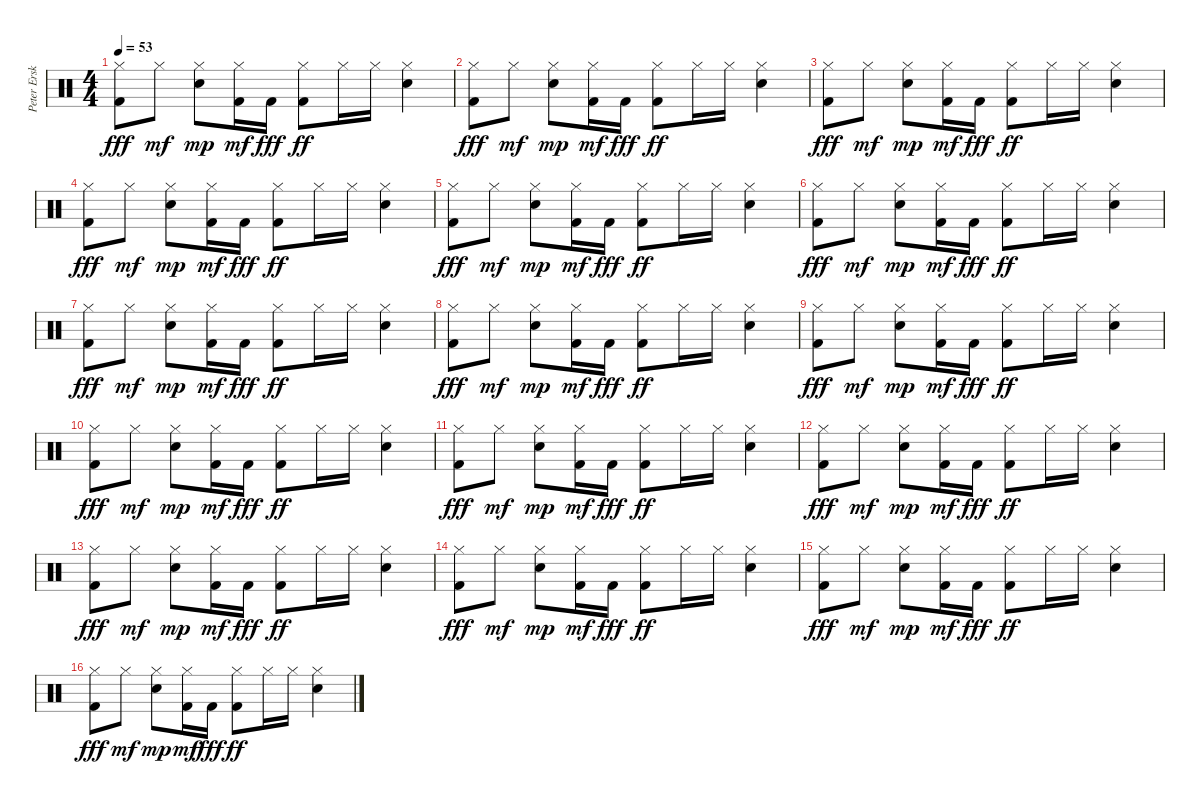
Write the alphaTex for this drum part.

\track ("Peter Erskine" "Peter Ersk") {instrument percussion}
\staff {score}
\articulation defaults
\ts (4 4)
\tempo 53
\clef neutral
\ks c
("Kick (hit) 2" "Hi-Hat (closed)").8{dy fff} "Hi-Hat (closed)".8{dy mf} ("Snare (hit) 2" "Hi-Hat (closed)").8{dy mp} ("Kick (hit) 2" "Hi-Hat (closed)").16{dy mf} "Kick (hit) 2".16{dy fff} ("Kick (hit) 2" "Hi-Hat (closed)").8{dy ff} "Hi-Hat (closed)".16 "Hi-Hat (closed)".16 ("Snare (hit) 2" "Hi-Hat (closed)").4 |
("Kick (hit) 2" "Hi-Hat (closed)").8{dy fff} "Hi-Hat (closed)".8{dy mf} ("Snare (hit) 2" "Hi-Hat (closed)").8{dy mp} ("Kick (hit) 2" "Hi-Hat (closed)").16{dy mf} "Kick (hit) 2".16{dy fff} ("Kick (hit) 2" "Hi-Hat (closed)").8{dy ff} "Hi-Hat (closed)".16 "Hi-Hat (closed)".16 ("Snare (hit) 2" "Hi-Hat (closed)").4 |
("Kick (hit) 2" "Hi-Hat (closed)").8{dy fff} "Hi-Hat (closed)".8{dy mf} ("Snare (hit) 2" "Hi-Hat (closed)").8{dy mp} ("Kick (hit) 2" "Hi-Hat (closed)").16{dy mf} "Kick (hit) 2".16{dy fff} ("Kick (hit) 2" "Hi-Hat (closed)").8{dy ff} "Hi-Hat (closed)".16 "Hi-Hat (closed)".16 ("Snare (hit) 2" "Hi-Hat (closed)").4 |
("Kick (hit) 2" "Hi-Hat (closed)").8{dy fff} "Hi-Hat (closed)".8{dy mf} ("Snare (hit) 2" "Hi-Hat (closed)").8{dy mp} ("Kick (hit) 2" "Hi-Hat (closed)").16{dy mf} "Kick (hit) 2".16{dy fff} ("Kick (hit) 2" "Hi-Hat (closed)").8{dy ff} "Hi-Hat (closed)".16 "Hi-Hat (closed)".16 ("Snare (hit) 2" "Hi-Hat (closed)").4 |
("Kick (hit) 2" "Hi-Hat (closed)").8{dy fff} "Hi-Hat (closed)".8{dy mf} ("Snare (hit) 2" "Hi-Hat (closed)").8{dy mp} ("Kick (hit) 2" "Hi-Hat (closed)").16{dy mf} "Kick (hit) 2".16{dy fff} ("Kick (hit) 2" "Hi-Hat (closed)").8{dy ff} "Hi-Hat (closed)".16 "Hi-Hat (closed)".16 ("Snare (hit) 2" "Hi-Hat (closed)").4 |
("Kick (hit) 2" "Hi-Hat (closed)").8{dy fff} "Hi-Hat (closed)".8{dy mf} ("Snare (hit) 2" "Hi-Hat (closed)").8{dy mp} ("Kick (hit) 2" "Hi-Hat (closed)").16{dy mf} "Kick (hit) 2".16{dy fff} ("Kick (hit) 2" "Hi-Hat (closed)").8{dy ff} "Hi-Hat (closed)".16 "Hi-Hat (closed)".16 ("Snare (hit) 2" "Hi-Hat (closed)").4 |
("Kick (hit) 2" "Hi-Hat (closed)").8{dy fff} "Hi-Hat (closed)".8{dy mf} ("Snare (hit) 2" "Hi-Hat (closed)").8{dy mp} ("Kick (hit) 2" "Hi-Hat (closed)").16{dy mf} "Kick (hit) 2".16{dy fff} ("Kick (hit) 2" "Hi-Hat (closed)").8{dy ff} "Hi-Hat (closed)".16 "Hi-Hat (closed)".16 ("Snare (hit) 2" "Hi-Hat (closed)").4 |
("Kick (hit) 2" "Hi-Hat (closed)").8{dy fff} "Hi-Hat (closed)".8{dy mf} ("Snare (hit) 2" "Hi-Hat (closed)").8{dy mp} ("Kick (hit) 2" "Hi-Hat (closed)").16{dy mf} "Kick (hit) 2".16{dy fff} ("Kick (hit) 2" "Hi-Hat (closed)").8{dy ff} "Hi-Hat (closed)".16 "Hi-Hat (closed)".16 ("Snare (hit) 2" "Hi-Hat (closed)").4 |
("Kick (hit) 2" "Hi-Hat (closed)").8{dy fff} "Hi-Hat (closed)".8{dy mf} ("Snare (hit) 2" "Hi-Hat (closed)").8{dy mp} ("Kick (hit) 2" "Hi-Hat (closed)").16{dy mf} "Kick (hit) 2".16{dy fff} ("Kick (hit) 2" "Hi-Hat (closed)").8{dy ff} "Hi-Hat (closed)".16 "Hi-Hat (closed)".16 ("Snare (hit) 2" "Hi-Hat (closed)").4 |
("Kick (hit) 2" "Hi-Hat (closed)").8{dy fff} "Hi-Hat (closed)".8{dy mf} ("Snare (hit) 2" "Hi-Hat (closed)").8{dy mp} ("Kick (hit) 2" "Hi-Hat (closed)").16{dy mf} "Kick (hit) 2".16{dy fff} ("Kick (hit) 2" "Hi-Hat (closed)").8{dy ff} "Hi-Hat (closed)".16 "Hi-Hat (closed)".16 ("Snare (hit) 2" "Hi-Hat (closed)").4 |
("Kick (hit) 2" "Hi-Hat (closed)").8{dy fff} "Hi-Hat (closed)".8{dy mf} ("Snare (hit) 2" "Hi-Hat (closed)").8{dy mp} ("Kick (hit) 2" "Hi-Hat (closed)").16{dy mf} "Kick (hit) 2".16{dy fff} ("Kick (hit) 2" "Hi-Hat (closed)").8{dy ff} "Hi-Hat (closed)".16 "Hi-Hat (closed)".16 ("Snare (hit) 2" "Hi-Hat (closed)").4 |
("Kick (hit) 2" "Hi-Hat (closed)").8{dy fff} "Hi-Hat (closed)".8{dy mf} ("Snare (hit) 2" "Hi-Hat (closed)").8{dy mp} ("Kick (hit) 2" "Hi-Hat (closed)").16{dy mf} "Kick (hit) 2".16{dy fff} ("Kick (hit) 2" "Hi-Hat (closed)").8{dy ff} "Hi-Hat (closed)".16 "Hi-Hat (closed)".16 ("Snare (hit) 2" "Hi-Hat (closed)").4 |
("Kick (hit) 2" "Hi-Hat (closed)").8{dy fff} "Hi-Hat (closed)".8{dy mf} ("Snare (hit) 2" "Hi-Hat (closed)").8{dy mp} ("Kick (hit) 2" "Hi-Hat (closed)").16{dy mf} "Kick (hit) 2".16{dy fff} ("Kick (hit) 2" "Hi-Hat (closed)").8{dy ff} "Hi-Hat (closed)".16 "Hi-Hat (closed)".16 ("Snare (hit) 2" "Hi-Hat (closed)").4 |
("Kick (hit) 2" "Hi-Hat (closed)").8{dy fff} "Hi-Hat (closed)".8{dy mf} ("Snare (hit) 2" "Hi-Hat (closed)").8{dy mp} ("Kick (hit) 2" "Hi-Hat (closed)").16{dy mf} "Kick (hit) 2".16{dy fff} ("Kick (hit) 2" "Hi-Hat (closed)").8{dy ff} "Hi-Hat (closed)".16 "Hi-Hat (closed)".16 ("Snare (hit) 2" "Hi-Hat (closed)").4 |
("Kick (hit) 2" "Hi-Hat (closed)").8{dy fff} "Hi-Hat (closed)".8{dy mf} ("Snare (hit) 2" "Hi-Hat (closed)").8{dy mp} ("Kick (hit) 2" "Hi-Hat (closed)").16{dy mf} "Kick (hit) 2".16{dy fff} ("Kick (hit) 2" "Hi-Hat (closed)").8{dy ff} "Hi-Hat (closed)".16 "Hi-Hat (closed)".16 ("Snare (hit) 2" "Hi-Hat (closed)").4 |
("Kick (hit) 2" "Hi-Hat (closed)").8{dy fff} "Hi-Hat (closed)".8{dy mf} ("Snare (hit) 2" "Hi-Hat (closed)").8{dy mp} ("Kick (hit) 2" "Hi-Hat (closed)").16{dy mf} "Kick (hit) 2".16{dy fff} ("Kick (hit) 2" "Hi-Hat (closed)").8{dy ff} "Hi-Hat (closed)".16 "Hi-Hat (closed)".16 ("Snare (hit) 2" "Hi-Hat (closed)").4
